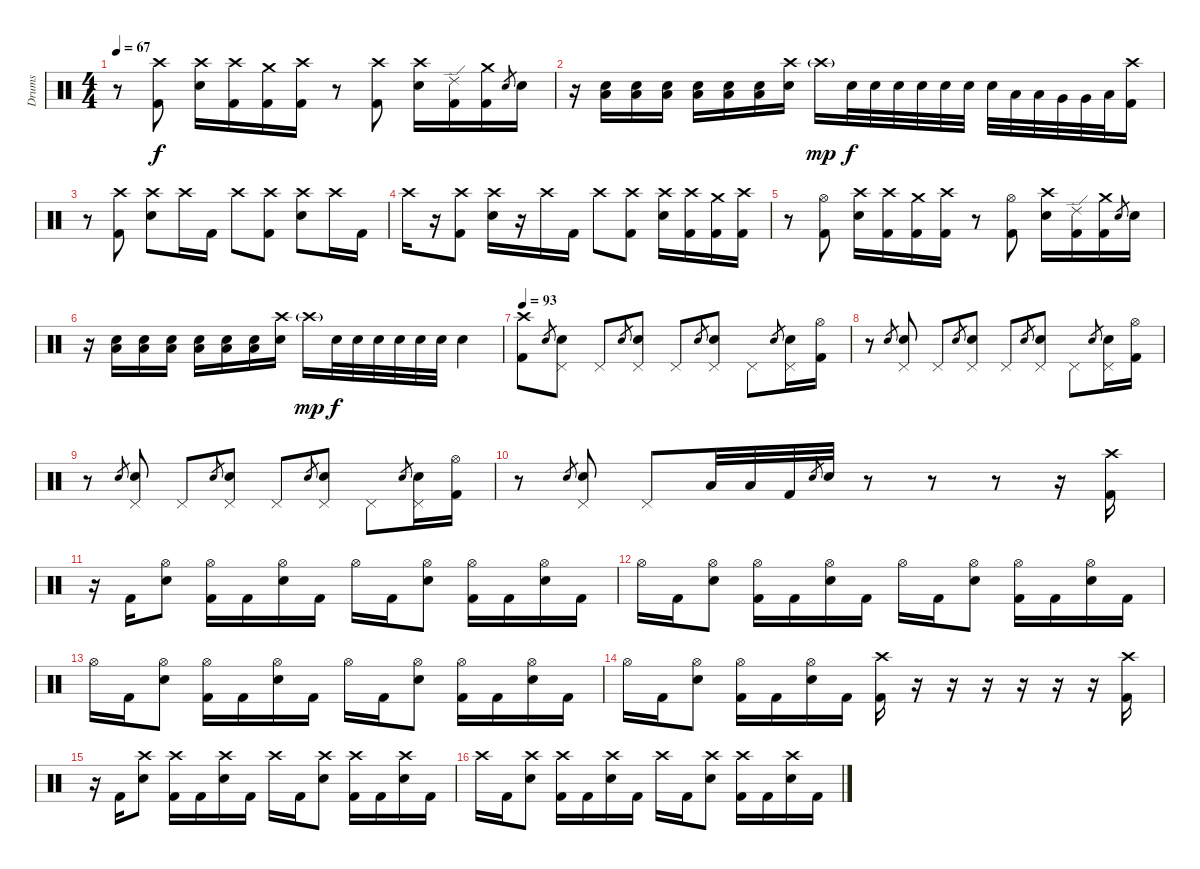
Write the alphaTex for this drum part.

\track ("Drums" "Drums") {instrument percussion}
\staff {score}
\articulation defaults
\ts (4 4)
\tempo 67
\clef neutral
\ks c
r.8{dy f} ("Crash high (hit)" "Kick (hit) 2").8 ("Crash high (hit)" "Snare (hit) 2").16 ("Crash high (hit)" "Kick (hit) 2").16 ("Crash medium (hit)" "Kick (hit) 2").16 ("Crash high (hit)" "Kick (hit) 2").16 r.8 ("Crash high (hit)" "Kick (hit) 2").8 ("Crash high (hit)" "Snare (hit) 2").16 ("Ride (edge) 2" "Kick (hit) 2").16 ("Crash medium (hit)" "Kick (hit) 2").16 "Snare (hit) 2".8{gr} "Snare (hit) 2".16 |
r.16 ("Low Floor Tom (hit)" "Snare (hit) 2").16 ("Low Floor Tom (hit)" "Snare (hit) 2").16 ("Low Floor Tom (hit)" "Snare (hit) 2").16 ("Low Floor Tom (hit)" "Snare (hit) 2").16 ("Low Floor Tom (hit)" "Snare (hit) 2").16 ("Low Floor Tom (hit)" "Snare (hit) 2").16 ("Crash high (hit)" "Snare (hit) 2").16 "Crash high (hit)"{g}.16{dy mp volume 0} "Snare (hit) 2".32{dy f volume 16} "Snare (hit) 2".32 "Snare (hit) 2".32 "Snare (hit) 2".32 "Snare (hit) 2".32 "Snare (hit) 2".32 "Snare (hit) 2".32 "Low Tom (hit)".32 "Low Tom (hit)".32 "Very Low Tom (hit)".32 "Very Low Tom (hit)".32 "Low Floor Tom (hit)".32 ("Crash high (hit)" "Kick (hit) 2").16 |
r.8 ("Crash high (hit)" "Kick (hit) 2").8 ("Crash high (hit)" "Snare (hit) 2").8 "Crash high (hit)".16 "Kick (hit) 2".16 "Crash high (hit)".8 ("Crash high (hit)" "Kick (hit) 2").8 ("Crash high (hit)" "Snare (hit) 2").8 "Crash high (hit)".16 "Kick (hit) 2".16 |
"Crash high (hit)".16 r.16 ("Crash high (hit)" "Kick (hit) 2").8 ("Crash high (hit)" "Snare (hit) 2").16 r.16 "Crash high (hit)".16 "Kick (hit) 2".16 "Crash high (hit)".8 ("Crash high (hit)" "Kick (hit) 2").8 ("Crash high (hit)" "Snare (hit) 2").16 ("Crash high (hit)" "Kick (hit) 2").16 ("Crash medium (hit)" "Kick (hit) 2").16 ("Crash high (hit)" "Kick (hit) 2").16 |
r.8 ("Hi-Hat (open)" "Kick (hit) 2").8 ("Crash high (hit)" "Snare (hit) 2").16 ("Crash high (hit)" "Kick (hit) 2").16 ("Crash medium (hit)" "Kick (hit) 2").16 ("Crash high (hit)" "Kick (hit) 2").16 r.8 ("Hi-Hat (open)" "Kick (hit) 2").8 ("Crash high (hit)" "Snare (hit) 2").16 ("Ride (edge) 2" "Kick (hit) 2").16 ("Crash medium (hit)" "Kick (hit) 2").16 "Snare (hit) 2".8{gr} "Snare (hit) 2".16 |
r.16 ("Low Floor Tom (hit)" "Snare (hit) 2").16 ("Low Floor Tom (hit)" "Snare (hit) 2").16 ("Low Floor Tom (hit)" "Snare (hit) 2").16 ("Low Floor Tom (hit)" "Snare (hit) 2").16 ("Low Floor Tom (hit)" "Snare (hit) 2").16 ("Low Floor Tom (hit)" "Snare (hit) 2").16 ("Crash high (hit)" "Snare (hit) 2").16 "Crash high (hit)"{g}.16{dy mp volume 0} "Snare (hit) 2".32{dy f volume 16} "Snare (hit) 2".32 "Snare (hit) 2".32 "Snare (hit) 2".32 "Snare (hit) 2".32 "Snare (hit) 2".32 "Snare (hit) 2".4 |
\tempo 93
("Crash high (hit)" "Kick (hit) 2").8 "Snare (hit) 2".8{gr} ("Pedal Hi-Hat (hit)" "Snare (hit) 2").8 "Pedal Hi-Hat (hit)".8 "Snare (hit) 2".8{gr} ("Pedal Hi-Hat (hit)" "Snare (hit) 2").8 "Pedal Hi-Hat (hit)".8 "Snare (hit) 2".8{gr} ("Pedal Hi-Hat (hit)" "Snare (hit) 2").8 "Pedal Hi-Hat (hit)".8 "Snare (hit) 2".8{gr} ("Pedal Hi-Hat (hit)" "Snare (hit) 2").16 ("Hi-Hat (open)" "Kick (hit) 2").16 |
r.8 "Snare (hit) 2".8{gr} ("Pedal Hi-Hat (hit)" "Snare (hit) 2").8 "Pedal Hi-Hat (hit)".8 "Snare (hit) 2".8{gr} ("Pedal Hi-Hat (hit)" "Snare (hit) 2").8 "Pedal Hi-Hat (hit)".8 "Snare (hit) 2".8{gr} ("Pedal Hi-Hat (hit)" "Snare (hit) 2").8 "Pedal Hi-Hat (hit)".8 "Snare (hit) 2".8{gr} ("Pedal Hi-Hat (hit)" "Snare (hit) 2").16 ("Hi-Hat (open)" "Kick (hit) 2").16 |
r.8 "Snare (hit) 2".8{gr} ("Pedal Hi-Hat (hit)" "Snare (hit) 2").8 "Pedal Hi-Hat (hit)".8 "Snare (hit) 2".8{gr} ("Pedal Hi-Hat (hit)" "Snare (hit) 2").8 "Pedal Hi-Hat (hit)".8 "Snare (hit) 2".8{gr} ("Pedal Hi-Hat (hit)" "Snare (hit) 2").8 "Pedal Hi-Hat (hit)".8 "Snare (hit) 2".8{gr} ("Pedal Hi-Hat (hit)" "Snare (hit) 2").16 ("Hi-Hat (open)" "Kick (hit) 2").16 |
r.8 "Snare (hit) 2".8{gr} ("Pedal Hi-Hat (hit)" "Snare (hit) 2").8 "Pedal Hi-Hat (hit)".8 "Low Tom (hit)".32 "Low Floor Tom (hit)".32 "Kick (hit) 2".32 "Snare (hit) 2".8{gr} "Snare (hit) 2".32 r.8 r.8 r.8 r.16 ("Crash high (hit)" "Kick (hit) 2").16 |
r.16 "Kick (hit) 2".16 ("Hi-Hat (open)" "Snare (hit) 2").8 ("Hi-Hat (open)" "Kick (hit) 2").16 "Kick (hit) 2".16 ("Hi-Hat (open)" "Snare (hit) 2").16 "Kick (hit) 2".16 "Hi-Hat (open)".16 "Kick (hit) 2".16 ("Hi-Hat (open)" "Snare (hit) 2").8 ("Hi-Hat (open)" "Kick (hit) 2").16 "Kick (hit) 2".16 ("Hi-Hat (open)" "Snare (hit) 2").16 "Kick (hit) 2".16 |
"Hi-Hat (open)".16 "Kick (hit) 2".16 ("Hi-Hat (open)" "Snare (hit) 2").8 ("Hi-Hat (open)" "Kick (hit) 2").16 "Kick (hit) 2".16 ("Hi-Hat (open)" "Snare (hit) 2").16 "Kick (hit) 2".16 "Hi-Hat (open)".16 "Kick (hit) 2".16 ("Hi-Hat (open)" "Snare (hit) 2").8 ("Hi-Hat (open)" "Kick (hit) 2").16 "Kick (hit) 2".16 ("Hi-Hat (open)" "Snare (hit) 2").16 "Kick (hit) 2".16 |
"Hi-Hat (open)".16 "Kick (hit) 2".16 ("Hi-Hat (open)" "Snare (hit) 2").8 ("Hi-Hat (open)" "Kick (hit) 2").16 "Kick (hit) 2".16 ("Hi-Hat (open)" "Snare (hit) 2").16 "Kick (hit) 2".16 "Hi-Hat (open)".16 "Kick (hit) 2".16 ("Hi-Hat (open)" "Snare (hit) 2").8 ("Hi-Hat (open)" "Kick (hit) 2").16 "Kick (hit) 2".16 ("Hi-Hat (open)" "Snare (hit) 2").16 "Kick (hit) 2".16 |
"Hi-Hat (open)".16 "Kick (hit) 2".16 ("Hi-Hat (open)" "Snare (hit) 2").8 ("Hi-Hat (open)" "Kick (hit) 2").16 "Kick (hit) 2".16 ("Hi-Hat (open)" "Snare (hit) 2").16 "Kick (hit) 2".16 ("Crash high (hit)" "Kick (hit) 2").16 r.16{volume 0} r.16 r.16 r.16 r.16 r.16 ("Crash high (hit)" "Kick (hit) 2").16{volume 16} |
r.16 "Kick (hit) 2".16 ("Crash high (hit)" "Snare (hit) 2").8 ("Crash high (hit)" "Kick (hit) 2").16 "Kick (hit) 2".16 ("Crash high (hit)" "Snare (hit) 2").16 "Kick (hit) 2".16 "Crash high (hit)".16 "Kick (hit) 2".16 ("Crash high (hit)" "Snare (hit) 2").8 ("Crash high (hit)" "Kick (hit) 2").16 "Kick (hit) 2".16 ("Crash high (hit)" "Snare (hit) 2").16 "Kick (hit) 2".16 |
"Crash high (hit)".16 "Kick (hit) 2".16 ("Crash high (hit)" "Snare (hit) 2").8 ("Crash high (hit)" "Kick (hit) 2").16 "Kick (hit) 2".16 ("Crash high (hit)" "Snare (hit) 2").16 "Kick (hit) 2".16 "Crash high (hit)".16 "Kick (hit) 2".16 ("Crash high (hit)" "Snare (hit) 2").8 ("Crash high (hit)" "Kick (hit) 2").16 "Kick (hit) 2".16 ("Crash high (hit)" "Snare (hit) 2").16 "Kick (hit) 2".16
